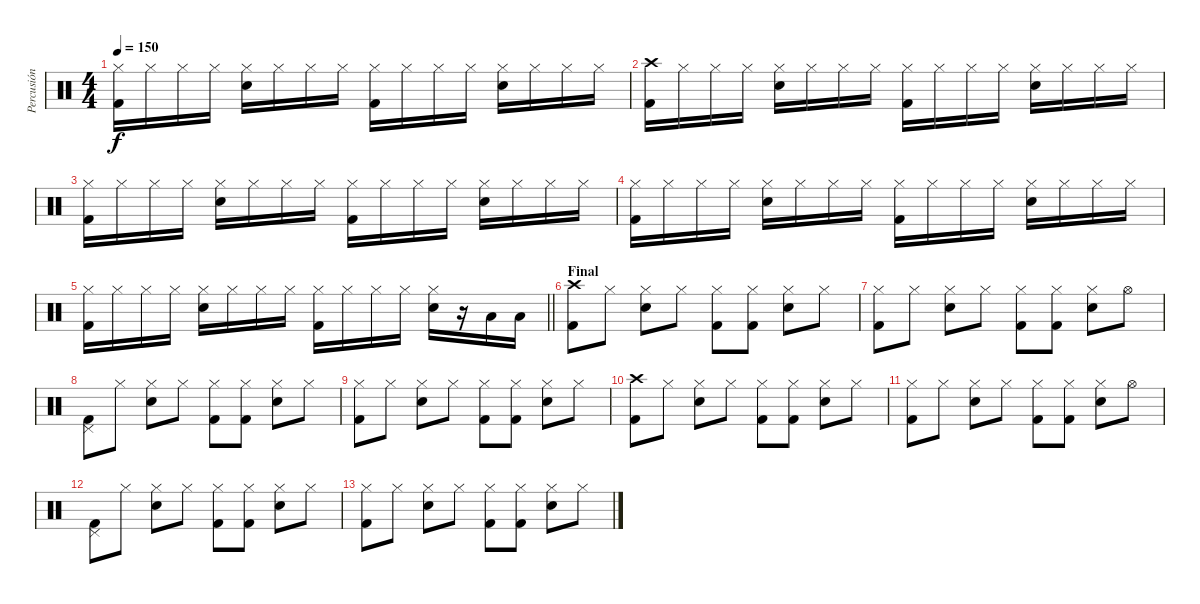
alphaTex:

\track ("Percusión" "Percusión") {instrument percussion}
\staff {score}
\articulation defaults
\ts (4 4)
\tempo 150
\clef neutral
\ks c
("Hi-Hat (closed)" "Kick (hit) 2").16{dy f} "Hi-Hat (closed)".16 "Hi-Hat (closed)".16 "Hi-Hat (closed)".16 ("Hi-Hat (closed)" "Electric Snare (hit)").16 "Hi-Hat (closed)".16 "Hi-Hat (closed)".16 "Hi-Hat (closed)".16 ("Hi-Hat (closed)" "Kick (hit) 2").16 "Hi-Hat (closed)".16 "Hi-Hat (closed)".16 "Hi-Hat (closed)".16 ("Hi-Hat (closed)" "Electric Snare (hit)").16 "Hi-Hat (closed)".16 "Hi-Hat (closed)".16 "Hi-Hat (closed)".16 |
("Crash high (hit)" "Kick (hit) 2").16 "Hi-Hat (closed)".16 "Hi-Hat (closed)".16 "Hi-Hat (closed)".16 ("Hi-Hat (closed)" "Electric Snare (hit)").16 "Hi-Hat (closed)".16 "Hi-Hat (closed)".16 "Hi-Hat (closed)".16 ("Hi-Hat (closed)" "Kick (hit) 2").16 "Hi-Hat (closed)".16 "Hi-Hat (closed)".16 "Hi-Hat (closed)".16 ("Hi-Hat (closed)" "Electric Snare (hit)").16 "Hi-Hat (closed)".16 "Hi-Hat (closed)".16 "Hi-Hat (closed)".16 |
("Hi-Hat (closed)" "Kick (hit) 2").16 "Hi-Hat (closed)".16 "Hi-Hat (closed)".16 "Hi-Hat (closed)".16 ("Hi-Hat (closed)" "Electric Snare (hit)").16 "Hi-Hat (closed)".16 "Hi-Hat (closed)".16 "Hi-Hat (closed)".16 ("Hi-Hat (closed)" "Kick (hit) 2").16 "Hi-Hat (closed)".16 "Hi-Hat (closed)".16 "Hi-Hat (closed)".16 ("Hi-Hat (closed)" "Electric Snare (hit)").16 "Hi-Hat (closed)".16 "Hi-Hat (closed)".16 "Hi-Hat (closed)".16 |
("Hi-Hat (closed)" "Kick (hit) 2").16 "Hi-Hat (closed)".16 "Hi-Hat (closed)".16 "Hi-Hat (closed)".16 ("Hi-Hat (closed)" "Electric Snare (hit)").16 "Hi-Hat (closed)".16 "Hi-Hat (closed)".16 "Hi-Hat (closed)".16 ("Hi-Hat (closed)" "Kick (hit) 2").16 "Hi-Hat (closed)".16 "Hi-Hat (closed)".16 "Hi-Hat (closed)".16 ("Hi-Hat (closed)" "Electric Snare (hit)").16 "Hi-Hat (closed)".16 "Hi-Hat (closed)".16 "Hi-Hat (closed)".16 |
\barLineRight lightlight
("Hi-Hat (closed)" "Kick (hit) 2").16 "Hi-Hat (closed)".16 "Hi-Hat (closed)".16 "Hi-Hat (closed)".16 ("Hi-Hat (closed)" "Electric Snare (hit)").16 "Hi-Hat (closed)".16 "Hi-Hat (closed)".16 "Hi-Hat (closed)".16 ("Hi-Hat (closed)" "Kick (hit) 2").16 "Hi-Hat (closed)".16 "Hi-Hat (closed)".16 "Hi-Hat (closed)".16 ("Hi-Hat (closed)" "Electric Snare (hit)").16 r.16 "Low Tom (hit)".16 "Low Tom (hit)".16 |
\section ("" "Final")
("Crash high (hit)" "Kick (hit) 2").8 "Hi-Hat (closed)".8 ("Hi-Hat (closed)" "Electric Snare (hit)").8 "Hi-Hat (closed)".8 ("Hi-Hat (closed)" "Kick (hit) 2").8 ("Hi-Hat (closed)" "Kick (hit) 2").8 ("Hi-Hat (closed)" "Electric Snare (hit)").8 "Hi-Hat (closed)".8 |
("Hi-Hat (closed)" "Kick (hit) 2").8 "Hi-Hat (closed)".8 ("Hi-Hat (closed)" "Electric Snare (hit)").8 "Hi-Hat (closed)".8 ("Hi-Hat (closed)" "Kick (hit) 2").8 ("Hi-Hat (closed)" "Kick (hit) 2").8 ("Hi-Hat (closed)" "Electric Snare (hit)").8 "Hi-Hat (open)".8 |
("Pedal Hi-Hat (hit)" "Kick (hit) 2").8 "Hi-Hat (closed)".8 ("Hi-Hat (closed)" "Electric Snare (hit)").8 "Hi-Hat (closed)".8 ("Hi-Hat (closed)" "Kick (hit) 2").8 ("Hi-Hat (closed)" "Kick (hit) 2").8 ("Hi-Hat (closed)" "Electric Snare (hit)").8 "Hi-Hat (closed)".8 |
("Hi-Hat (closed)" "Kick (hit) 2").8 "Hi-Hat (closed)".8 ("Hi-Hat (closed)" "Electric Snare (hit)").8 "Hi-Hat (closed)".8 ("Hi-Hat (closed)" "Kick (hit) 2").8 ("Hi-Hat (closed)" "Kick (hit) 2").8 ("Hi-Hat (closed)" "Electric Snare (hit)").8 "Hi-Hat (closed)".8 |
("Crash high (hit)" "Kick (hit) 2").8 "Hi-Hat (closed)".8 ("Hi-Hat (closed)" "Electric Snare (hit)").8 "Hi-Hat (closed)".8 ("Hi-Hat (closed)" "Kick (hit) 2").8 ("Hi-Hat (closed)" "Kick (hit) 2").8 ("Hi-Hat (closed)" "Electric Snare (hit)").8 "Hi-Hat (closed)".8 |
("Hi-Hat (closed)" "Kick (hit) 2").8 "Hi-Hat (closed)".8 ("Hi-Hat (closed)" "Electric Snare (hit)").8 "Hi-Hat (closed)".8 ("Hi-Hat (closed)" "Kick (hit) 2").8 ("Hi-Hat (closed)" "Kick (hit) 2").8 ("Hi-Hat (closed)" "Electric Snare (hit)").8 "Hi-Hat (open)".8 |
("Pedal Hi-Hat (hit)" "Kick (hit) 2").8 "Hi-Hat (closed)".8 ("Hi-Hat (closed)" "Electric Snare (hit)").8 "Hi-Hat (closed)".8 ("Hi-Hat (closed)" "Kick (hit) 2").8 ("Hi-Hat (closed)" "Kick (hit) 2").8 ("Hi-Hat (closed)" "Electric Snare (hit)").8 "Hi-Hat (closed)".8 |
("Hi-Hat (closed)" "Kick (hit) 2").8 "Hi-Hat (closed)".8 ("Hi-Hat (closed)" "Electric Snare (hit)").8 "Hi-Hat (closed)".8 ("Hi-Hat (closed)" "Kick (hit) 2").8 ("Hi-Hat (closed)" "Kick (hit) 2").8 ("Hi-Hat (closed)" "Electric Snare (hit)").8 "Hi-Hat (closed)".8
